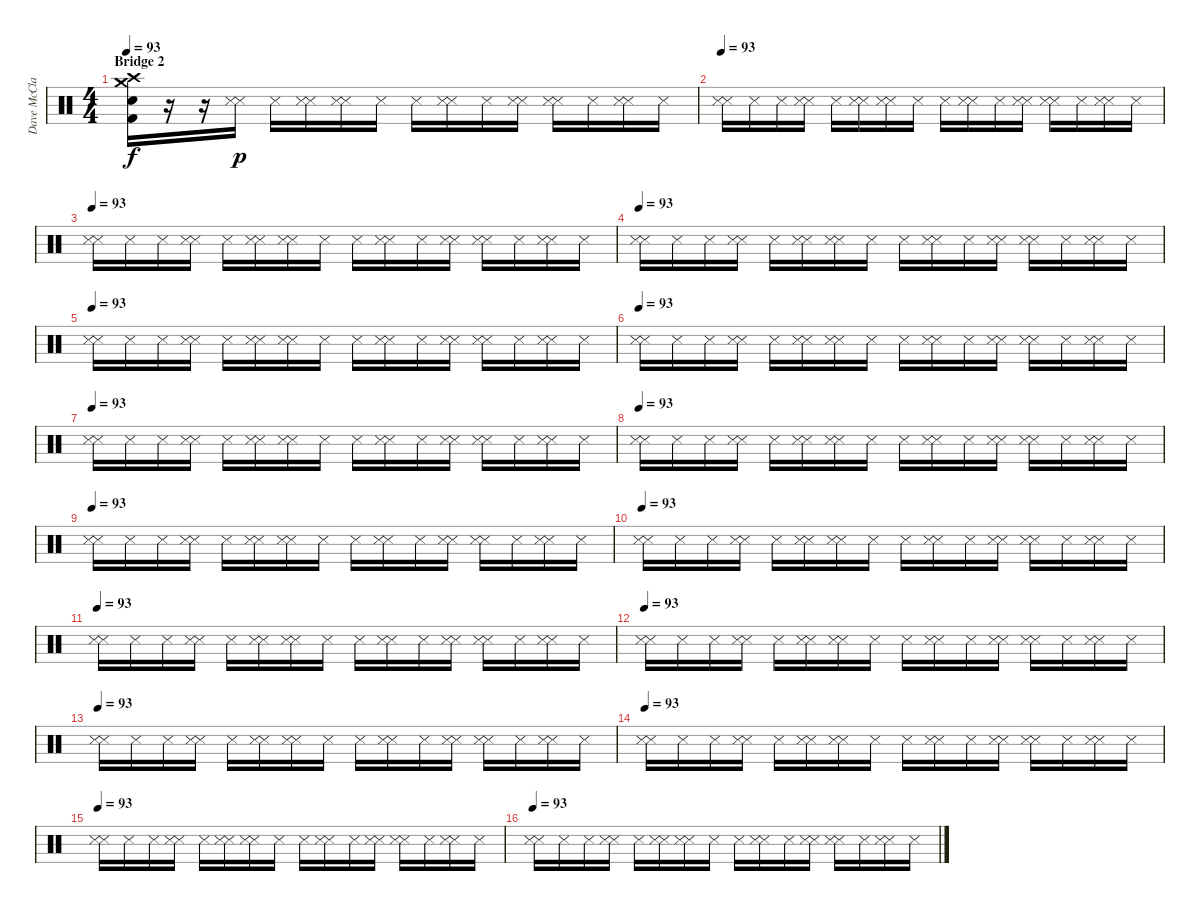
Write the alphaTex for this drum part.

\track ("Dave McClain" "Dave McCla") {instrument percussion}
\staff {score}
\articulation defaults
\ts (4 4)
\section ("" "Bridge 2")
\tempo 93
\clef neutral
\ks c
("Crash medium (hit)" "Crash high (hit)" "Snare (hit) 2" "Kick (hit) 2").16{dy f} r.16 r.16 ("Snare (side stick) 3" "Snare (side stick) 3").16{dy p} "Snare (side stick) 3".16 ("Snare (side stick) 3" "Snare (side stick) 3").16 ("Snare (side stick) 3" "Snare (side stick) 3").16 "Snare (side stick) 3".16 "Snare (side stick) 3".16 ("Snare (side stick) 3" "Snare (side stick) 3").16 "Snare (side stick) 3".16 ("Snare (side stick) 3" "Snare (side stick) 3").16 ("Snare (side stick) 3" "Snare (side stick) 3").16 "Snare (side stick) 3".16 ("Snare (side stick) 3" "Snare (side stick) 3").16 "Snare (side stick) 3".16 |
\tempo 93
("Snare (side stick) 3" "Snare (side stick) 3").16 "Snare (side stick) 3".16 "Snare (side stick) 3".16 ("Snare (side stick) 3" "Snare (side stick) 3").16 "Snare (side stick) 3".16 ("Snare (side stick) 3" "Snare (side stick) 3").16 ("Snare (side stick) 3" "Snare (side stick) 3").16 "Snare (side stick) 3".16 "Snare (side stick) 3".16 ("Snare (side stick) 3" "Snare (side stick) 3").16 "Snare (side stick) 3".16 ("Snare (side stick) 3" "Snare (side stick) 3").16 ("Snare (side stick) 3" "Snare (side stick) 3").16 "Snare (side stick) 3".16 ("Snare (side stick) 3" "Snare (side stick) 3").16 "Snare (side stick) 3".16 |
\tempo 93
("Snare (side stick) 3" "Snare (side stick) 3").16 "Snare (side stick) 3".16 "Snare (side stick) 3".16 ("Snare (side stick) 3" "Snare (side stick) 3").16 "Snare (side stick) 3".16 ("Snare (side stick) 3" "Snare (side stick) 3").16 ("Snare (side stick) 3" "Snare (side stick) 3").16 "Snare (side stick) 3".16 "Snare (side stick) 3".16 ("Snare (side stick) 3" "Snare (side stick) 3").16 "Snare (side stick) 3".16 ("Snare (side stick) 3" "Snare (side stick) 3").16 ("Snare (side stick) 3" "Snare (side stick) 3").16 "Snare (side stick) 3".16 ("Snare (side stick) 3" "Snare (side stick) 3").16 "Snare (side stick) 3".16 |
\tempo 93
("Snare (side stick) 3" "Snare (side stick) 3").16 "Snare (side stick) 3".16 "Snare (side stick) 3".16 ("Snare (side stick) 3" "Snare (side stick) 3").16 "Snare (side stick) 3".16 ("Snare (side stick) 3" "Snare (side stick) 3").16 ("Snare (side stick) 3" "Snare (side stick) 3").16 "Snare (side stick) 3".16 "Snare (side stick) 3".16 ("Snare (side stick) 3" "Snare (side stick) 3").16 "Snare (side stick) 3".16 ("Snare (side stick) 3" "Snare (side stick) 3").16 ("Snare (side stick) 3" "Snare (side stick) 3").16 "Snare (side stick) 3".16 ("Snare (side stick) 3" "Snare (side stick) 3").16 "Snare (side stick) 3".16 |
\tempo 93
("Snare (side stick) 3" "Snare (side stick) 3").16 "Snare (side stick) 3".16 "Snare (side stick) 3".16 ("Snare (side stick) 3" "Snare (side stick) 3").16 "Snare (side stick) 3".16 ("Snare (side stick) 3" "Snare (side stick) 3").16 ("Snare (side stick) 3" "Snare (side stick) 3").16 "Snare (side stick) 3".16 "Snare (side stick) 3".16 ("Snare (side stick) 3" "Snare (side stick) 3").16 "Snare (side stick) 3".16 ("Snare (side stick) 3" "Snare (side stick) 3").16 ("Snare (side stick) 3" "Snare (side stick) 3").16 "Snare (side stick) 3".16 ("Snare (side stick) 3" "Snare (side stick) 3").16 "Snare (side stick) 3".16 |
\tempo 93
("Snare (side stick) 3" "Snare (side stick) 3").16 "Snare (side stick) 3".16 "Snare (side stick) 3".16 ("Snare (side stick) 3" "Snare (side stick) 3").16 "Snare (side stick) 3".16 ("Snare (side stick) 3" "Snare (side stick) 3").16 ("Snare (side stick) 3" "Snare (side stick) 3").16 "Snare (side stick) 3".16 "Snare (side stick) 3".16 ("Snare (side stick) 3" "Snare (side stick) 3").16 "Snare (side stick) 3".16 ("Snare (side stick) 3" "Snare (side stick) 3").16 ("Snare (side stick) 3" "Snare (side stick) 3").16 "Snare (side stick) 3".16 ("Snare (side stick) 3" "Snare (side stick) 3").16 "Snare (side stick) 3".16 |
\tempo 93
("Snare (side stick) 3" "Snare (side stick) 3").16 "Snare (side stick) 3".16 "Snare (side stick) 3".16 ("Snare (side stick) 3" "Snare (side stick) 3").16 "Snare (side stick) 3".16 ("Snare (side stick) 3" "Snare (side stick) 3").16 ("Snare (side stick) 3" "Snare (side stick) 3").16 "Snare (side stick) 3".16 "Snare (side stick) 3".16 ("Snare (side stick) 3" "Snare (side stick) 3").16 "Snare (side stick) 3".16 ("Snare (side stick) 3" "Snare (side stick) 3").16 ("Snare (side stick) 3" "Snare (side stick) 3").16 "Snare (side stick) 3".16 ("Snare (side stick) 3" "Snare (side stick) 3").16 "Snare (side stick) 3".16 |
\tempo 93
("Snare (side stick) 3" "Snare (side stick) 3").16 "Snare (side stick) 3".16 "Snare (side stick) 3".16 ("Snare (side stick) 3" "Snare (side stick) 3").16 "Snare (side stick) 3".16 ("Snare (side stick) 3" "Snare (side stick) 3").16 ("Snare (side stick) 3" "Snare (side stick) 3").16 "Snare (side stick) 3".16 "Snare (side stick) 3".16 ("Snare (side stick) 3" "Snare (side stick) 3").16 "Snare (side stick) 3".16 ("Snare (side stick) 3" "Snare (side stick) 3").16 ("Snare (side stick) 3" "Snare (side stick) 3").16 "Snare (side stick) 3".16 ("Snare (side stick) 3" "Snare (side stick) 3").16 "Snare (side stick) 3".16 |
\tempo 93
("Snare (side stick) 3" "Snare (side stick) 3").16 "Snare (side stick) 3".16 "Snare (side stick) 3".16 ("Snare (side stick) 3" "Snare (side stick) 3").16 "Snare (side stick) 3".16 ("Snare (side stick) 3" "Snare (side stick) 3").16 ("Snare (side stick) 3" "Snare (side stick) 3").16 "Snare (side stick) 3".16 "Snare (side stick) 3".16 ("Snare (side stick) 3" "Snare (side stick) 3").16 "Snare (side stick) 3".16 ("Snare (side stick) 3" "Snare (side stick) 3").16 ("Snare (side stick) 3" "Snare (side stick) 3").16 "Snare (side stick) 3".16 ("Snare (side stick) 3" "Snare (side stick) 3").16 "Snare (side stick) 3".16 |
\tempo 93
("Snare (side stick) 3" "Snare (side stick) 3").16 "Snare (side stick) 3".16 "Snare (side stick) 3".16 ("Snare (side stick) 3" "Snare (side stick) 3").16 "Snare (side stick) 3".16 ("Snare (side stick) 3" "Snare (side stick) 3").16 ("Snare (side stick) 3" "Snare (side stick) 3").16 "Snare (side stick) 3".16 "Snare (side stick) 3".16 ("Snare (side stick) 3" "Snare (side stick) 3").16 "Snare (side stick) 3".16 ("Snare (side stick) 3" "Snare (side stick) 3").16 ("Snare (side stick) 3" "Snare (side stick) 3").16 "Snare (side stick) 3".16 ("Snare (side stick) 3" "Snare (side stick) 3").16 "Snare (side stick) 3".16 |
\tempo 93
("Snare (side stick) 3" "Snare (side stick) 3").16 "Snare (side stick) 3".16 "Snare (side stick) 3".16 ("Snare (side stick) 3" "Snare (side stick) 3").16 "Snare (side stick) 3".16 ("Snare (side stick) 3" "Snare (side stick) 3").16 ("Snare (side stick) 3" "Snare (side stick) 3").16 "Snare (side stick) 3".16 "Snare (side stick) 3".16 ("Snare (side stick) 3" "Snare (side stick) 3").16 "Snare (side stick) 3".16 ("Snare (side stick) 3" "Snare (side stick) 3").16 ("Snare (side stick) 3" "Snare (side stick) 3").16 "Snare (side stick) 3".16 ("Snare (side stick) 3" "Snare (side stick) 3").16 "Snare (side stick) 3".16 |
\tempo 93
("Snare (side stick) 3" "Snare (side stick) 3").16 "Snare (side stick) 3".16 "Snare (side stick) 3".16 ("Snare (side stick) 3" "Snare (side stick) 3").16 "Snare (side stick) 3".16 ("Snare (side stick) 3" "Snare (side stick) 3").16 ("Snare (side stick) 3" "Snare (side stick) 3").16 "Snare (side stick) 3".16 "Snare (side stick) 3".16 ("Snare (side stick) 3" "Snare (side stick) 3").16 "Snare (side stick) 3".16 ("Snare (side stick) 3" "Snare (side stick) 3").16 ("Snare (side stick) 3" "Snare (side stick) 3").16 "Snare (side stick) 3".16 ("Snare (side stick) 3" "Snare (side stick) 3").16 "Snare (side stick) 3".16 |
\tempo 93
("Snare (side stick) 3" "Snare (side stick) 3").16 "Snare (side stick) 3".16 "Snare (side stick) 3".16 ("Snare (side stick) 3" "Snare (side stick) 3").16 "Snare (side stick) 3".16 ("Snare (side stick) 3" "Snare (side stick) 3").16 ("Snare (side stick) 3" "Snare (side stick) 3").16 "Snare (side stick) 3".16 "Snare (side stick) 3".16 ("Snare (side stick) 3" "Snare (side stick) 3").16 "Snare (side stick) 3".16 ("Snare (side stick) 3" "Snare (side stick) 3").16 ("Snare (side stick) 3" "Snare (side stick) 3").16 "Snare (side stick) 3".16 ("Snare (side stick) 3" "Snare (side stick) 3").16 "Snare (side stick) 3".16 |
\tempo 93
("Snare (side stick) 3" "Snare (side stick) 3").16 "Snare (side stick) 3".16 "Snare (side stick) 3".16 ("Snare (side stick) 3" "Snare (side stick) 3").16 "Snare (side stick) 3".16 ("Snare (side stick) 3" "Snare (side stick) 3").16 ("Snare (side stick) 3" "Snare (side stick) 3").16 "Snare (side stick) 3".16 "Snare (side stick) 3".16 ("Snare (side stick) 3" "Snare (side stick) 3").16 "Snare (side stick) 3".16 ("Snare (side stick) 3" "Snare (side stick) 3").16 ("Snare (side stick) 3" "Snare (side stick) 3").16 "Snare (side stick) 3".16 ("Snare (side stick) 3" "Snare (side stick) 3").16 "Snare (side stick) 3".16 |
\tempo 93
("Snare (side stick) 3" "Snare (side stick) 3").16 "Snare (side stick) 3".16 "Snare (side stick) 3".16 ("Snare (side stick) 3" "Snare (side stick) 3").16 "Snare (side stick) 3".16 ("Snare (side stick) 3" "Snare (side stick) 3").16 ("Snare (side stick) 3" "Snare (side stick) 3").16 "Snare (side stick) 3".16 "Snare (side stick) 3".16 ("Snare (side stick) 3" "Snare (side stick) 3").16 "Snare (side stick) 3".16 ("Snare (side stick) 3" "Snare (side stick) 3").16 ("Snare (side stick) 3" "Snare (side stick) 3").16 "Snare (side stick) 3".16 ("Snare (side stick) 3" "Snare (side stick) 3").16 "Snare (side stick) 3".16 |
\tempo 93
("Snare (side stick) 3" "Snare (side stick) 3").16 "Snare (side stick) 3".16 "Snare (side stick) 3".16 ("Snare (side stick) 3" "Snare (side stick) 3").16 "Snare (side stick) 3".16 ("Snare (side stick) 3" "Snare (side stick) 3").16 ("Snare (side stick) 3" "Snare (side stick) 3").16 "Snare (side stick) 3".16 "Snare (side stick) 3".16 ("Snare (side stick) 3" "Snare (side stick) 3").16 "Snare (side stick) 3".16 ("Snare (side stick) 3" "Snare (side stick) 3").16 ("Snare (side stick) 3" "Snare (side stick) 3").16 "Snare (side stick) 3".16 ("Snare (side stick) 3" "Snare (side stick) 3").16 "Snare (side stick) 3".16
